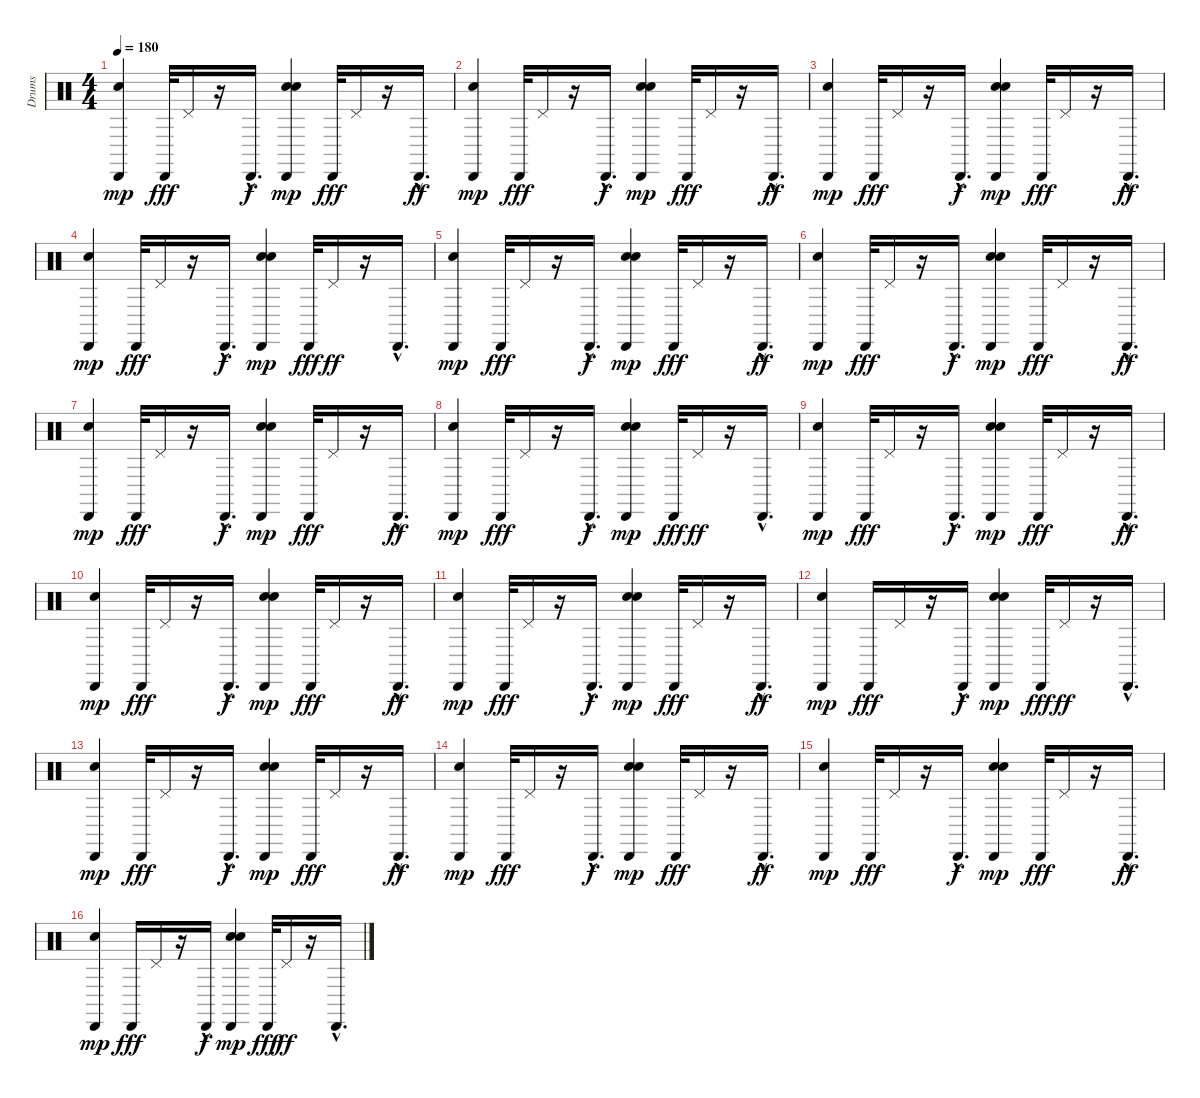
\track ("Drums" "Drums") {instrument percussion}
\staff {score}
\articulation defaults
\ts (4 4)
\tempo 180
\clef neutral
\ks c
("Snare (hit) 2" "Cabasa (hit)").4{dy mp} "Cabasa (hit)".32{dy fff} "Pedal Hi-Hat (hit)".16 r.16 "Cabasa (hit)"{hac}.16{d dy f} ("Snare (hit) 2" "Snare (hit) 2" "Cabasa (hit)").4{dy mp} "Cabasa (hit)".32{dy fff} "Pedal Hi-Hat (hit)".16 r.16 "Cabasa (hit)"{hac}.16{d dy ff} |
("Snare (hit) 2" "Cabasa (hit)").4{dy mp} "Cabasa (hit)".32{dy fff} "Pedal Hi-Hat (hit)".16 r.16 "Cabasa (hit)"{hac}.16{d dy f} ("Snare (hit) 2" "Snare (hit) 2" "Cabasa (hit)").4{dy mp} "Cabasa (hit)".32{dy fff} "Pedal Hi-Hat (hit)".16 r.16 "Cabasa (hit)"{hac}.16{d dy ff} |
("Snare (hit) 2" "Cabasa (hit)").4{dy mp} "Cabasa (hit)".32{dy fff} "Pedal Hi-Hat (hit)".16 r.16 "Cabasa (hit)"{hac}.16{d dy f} ("Snare (hit) 2" "Snare (hit) 2" "Cabasa (hit)").4{dy mp} "Cabasa (hit)".32{dy fff} "Pedal Hi-Hat (hit)".16 r.16 "Cabasa (hit)"{hac}.16{d dy ff} |
("Snare (hit) 2" "Cabasa (hit)").4{dy mp} "Cabasa (hit)".32{dy fff} "Pedal Hi-Hat (hit)".16 r.16 "Cabasa (hit)"{hac}.16{d dy f} ("Snare (hit) 2" "Snare (hit) 2" "Cabasa (hit)").4{dy mp} "Cabasa (hit)".32{dy fff} "Pedal Hi-Hat (hit)".16{dy ff} r.16 "Cabasa (hit)"{hac}.16{d} |
("Snare (hit) 2" "Cabasa (hit)").4{dy mp} "Cabasa (hit)".32{dy fff} "Pedal Hi-Hat (hit)".16 r.16 "Cabasa (hit)"{hac}.16{d dy f} ("Snare (hit) 2" "Snare (hit) 2" "Cabasa (hit)").4{dy mp} "Cabasa (hit)".32{dy fff} "Pedal Hi-Hat (hit)".16 r.16 "Cabasa (hit)"{hac}.16{d dy ff} |
("Snare (hit) 2" "Cabasa (hit)").4{dy mp} "Cabasa (hit)".32{dy fff} "Pedal Hi-Hat (hit)".16 r.16 "Cabasa (hit)"{hac}.16{d dy f} ("Snare (hit) 2" "Snare (hit) 2" "Cabasa (hit)").4{dy mp} "Cabasa (hit)".32{dy fff} "Pedal Hi-Hat (hit)".16 r.16 "Cabasa (hit)"{hac}.16{d dy ff} |
("Snare (hit) 2" "Cabasa (hit)").4{dy mp} "Cabasa (hit)".32{dy fff} "Pedal Hi-Hat (hit)".16 r.16 "Cabasa (hit)"{hac}.16{d dy f} ("Snare (hit) 2" "Snare (hit) 2" "Cabasa (hit)").4{dy mp} "Cabasa (hit)".32{dy fff} "Pedal Hi-Hat (hit)".16 r.16 "Cabasa (hit)"{hac}.16{d dy ff} |
("Snare (hit) 2" "Cabasa (hit)").4{dy mp} "Cabasa (hit)".32{dy fff} "Pedal Hi-Hat (hit)".16 r.16 "Cabasa (hit)"{hac}.16{d dy f} ("Snare (hit) 2" "Snare (hit) 2" "Cabasa (hit)").4{dy mp} "Cabasa (hit)".32{dy fff} "Pedal Hi-Hat (hit)".16{dy ff} r.16 "Cabasa (hit)"{hac}.16{d} |
("Snare (hit) 2" "Cabasa (hit)").4{dy mp} "Cabasa (hit)".32{dy fff} "Pedal Hi-Hat (hit)".16 r.16 "Cabasa (hit)"{hac}.16{d dy f} ("Snare (hit) 2" "Snare (hit) 2" "Cabasa (hit)").4{dy mp} "Cabasa (hit)".32{dy fff} "Pedal Hi-Hat (hit)".16 r.16 "Cabasa (hit)"{hac}.16{d dy ff} |
("Snare (hit) 2" "Cabasa (hit)").4{dy mp} "Cabasa (hit)".32{dy fff} "Pedal Hi-Hat (hit)".16 r.16 "Cabasa (hit)"{hac}.16{d dy f} ("Snare (hit) 2" "Snare (hit) 2" "Cabasa (hit)").4{dy mp} "Cabasa (hit)".32{dy fff} "Pedal Hi-Hat (hit)".16 r.16 "Cabasa (hit)"{hac}.16{d dy ff} |
("Snare (hit) 2" "Cabasa (hit)").4{dy mp} "Cabasa (hit)".32{dy fff} "Pedal Hi-Hat (hit)".16 r.16 "Cabasa (hit)"{hac}.16{d dy f} ("Snare (hit) 2" "Snare (hit) 2" "Cabasa (hit)").4{dy mp} "Cabasa (hit)".32{dy fff} "Pedal Hi-Hat (hit)".16 r.16 "Cabasa (hit)"{hac}.16{d dy ff} |
("Snare (hit) 2" "Cabasa (hit)").4{dy mp} "Cabasa (hit)".16{dy fff} "Pedal Hi-Hat (hit)".16 r.16 "Cabasa (hit)"{hac}.16{dy f} ("Snare (hit) 2" "Snare (hit) 2" "Cabasa (hit)").4{dy mp} "Cabasa (hit)".32{dy fff} "Pedal Hi-Hat (hit)".16{dy ff} r.16 "Cabasa (hit)"{hac}.16{d} |
("Snare (hit) 2" "Cabasa (hit)").4{dy mp} "Cabasa (hit)".32{dy fff} "Pedal Hi-Hat (hit)".16 r.16 "Cabasa (hit)"{hac}.16{d dy f} ("Snare (hit) 2" "Snare (hit) 2" "Cabasa (hit)").4{dy mp} "Cabasa (hit)".32{dy fff} "Pedal Hi-Hat (hit)".16 r.16 "Cabasa (hit)"{hac}.16{d dy ff} |
("Snare (hit) 2" "Cabasa (hit)").4{dy mp} "Cabasa (hit)".32{dy fff} "Pedal Hi-Hat (hit)".16 r.16 "Cabasa (hit)"{hac}.16{d dy f} ("Snare (hit) 2" "Snare (hit) 2" "Cabasa (hit)").4{dy mp} "Cabasa (hit)".32{dy fff} "Pedal Hi-Hat (hit)".16 r.16 "Cabasa (hit)"{hac}.16{d dy ff} |
("Snare (hit) 2" "Cabasa (hit)").4{dy mp} "Cabasa (hit)".32{dy fff} "Pedal Hi-Hat (hit)".16 r.16 "Cabasa (hit)"{hac}.16{d dy f} ("Snare (hit) 2" "Snare (hit) 2" "Cabasa (hit)").4{dy mp} "Cabasa (hit)".32{dy fff} "Pedal Hi-Hat (hit)".16 r.16 "Cabasa (hit)"{hac}.16{d dy ff} |
("Snare (hit) 2" "Cabasa (hit)").4{dy mp} "Cabasa (hit)".16{dy fff} "Pedal Hi-Hat (hit)".16 r.16 "Cabasa (hit)"{hac}.16{dy f} ("Snare (hit) 2" "Snare (hit) 2" "Cabasa (hit)").4{dy mp} "Cabasa (hit)".32{dy fff} "Pedal Hi-Hat (hit)".16{dy ff} r.16 "Cabasa (hit)"{hac}.16{d}
